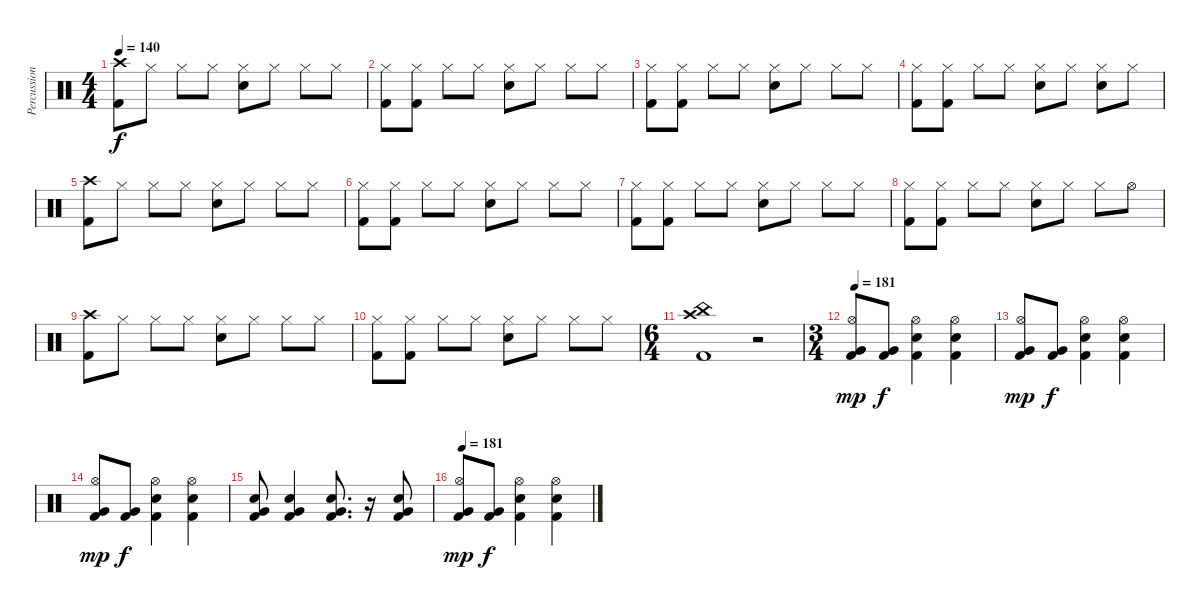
\track ("Percussion" "Percussion") {instrument percussion}
\staff {score}
\articulation defaults
\ts (4 4)
\tempo 140
\clef neutral
\ks c
("Kick (hit) 2" "Crash high (hit)").8{dy f} "Hi-Hat (closed)".8 "Hi-Hat (closed)".8 "Hi-Hat (closed)".8 ("Electric Snare (hit)" "Hi-Hat (closed)").8 "Hi-Hat (closed)".8 "Hi-Hat (closed)".8 "Hi-Hat (closed)".8 |
("Kick (hit) 2" "Hi-Hat (closed)").8 ("Hi-Hat (closed)" "Kick (hit) 2").8 "Hi-Hat (closed)".8 "Hi-Hat (closed)".8 ("Electric Snare (hit)" "Hi-Hat (closed)").8 "Hi-Hat (closed)".8 "Hi-Hat (closed)".8 "Hi-Hat (closed)".8 |
("Kick (hit) 2" "Hi-Hat (closed)").8 ("Hi-Hat (closed)" "Kick (hit) 2").8 "Hi-Hat (closed)".8 "Hi-Hat (closed)".8 ("Electric Snare (hit)" "Hi-Hat (closed)").8 "Hi-Hat (closed)".8 "Hi-Hat (closed)".8 "Hi-Hat (closed)".8 |
("Kick (hit) 2" "Hi-Hat (closed)").8 ("Hi-Hat (closed)" "Kick (hit) 2").8 "Hi-Hat (closed)".8 "Hi-Hat (closed)".8 ("Electric Snare (hit)" "Hi-Hat (closed)").8 "Hi-Hat (closed)".8 ("Hi-Hat (closed)" "Electric Snare (hit)").8 "Hi-Hat (closed)".8 |
("Kick (hit) 2" "Crash high (hit)").8 "Hi-Hat (closed)".8 "Hi-Hat (closed)".8 "Hi-Hat (closed)".8 ("Electric Snare (hit)" "Hi-Hat (closed)").8 "Hi-Hat (closed)".8 "Hi-Hat (closed)".8 "Hi-Hat (closed)".8 |
("Kick (hit) 2" "Hi-Hat (closed)").8 ("Hi-Hat (closed)" "Kick (hit) 2").8 "Hi-Hat (closed)".8 "Hi-Hat (closed)".8 ("Electric Snare (hit)" "Hi-Hat (closed)").8 "Hi-Hat (closed)".8 "Hi-Hat (closed)".8 "Hi-Hat (closed)".8 |
("Kick (hit) 2" "Hi-Hat (closed)").8 ("Hi-Hat (closed)" "Kick (hit) 2").8 "Hi-Hat (closed)".8 "Hi-Hat (closed)".8 ("Electric Snare (hit)" "Hi-Hat (closed)").8 "Hi-Hat (closed)".8 "Hi-Hat (closed)".8 "Hi-Hat (closed)".8 |
("Kick (hit) 2" "Hi-Hat (closed)").8 ("Hi-Hat (closed)" "Kick (hit) 2").8 "Hi-Hat (closed)".8 "Hi-Hat (closed)".8 ("Electric Snare (hit)" "Hi-Hat (closed)").8 "Hi-Hat (closed)".8 "Hi-Hat (closed)".8 "Hi-Hat (open)".8 |
("Kick (hit) 2" "Crash high (hit)").8 "Hi-Hat (closed)".8 "Hi-Hat (closed)".8 "Hi-Hat (closed)".8 ("Electric Snare (hit)" "Hi-Hat (closed)").8 "Hi-Hat (closed)".8 "Hi-Hat (closed)".8 "Hi-Hat (closed)".8 |
("Kick (hit) 2" "Hi-Hat (closed)").8 ("Hi-Hat (closed)" "Kick (hit) 2").8 "Hi-Hat (closed)".8 "Hi-Hat (closed)".8 ("Electric Snare (hit)" "Hi-Hat (closed)").8 "Hi-Hat (closed)".8 "Hi-Hat (closed)".8 "Hi-Hat (closed)".8 |
\ts (6 4)
("Crash high (hit)" "Kick (hit) 2" "China (hit)").1 r.2 |
\ts (3 4)
\tempo 181
("Kick (hit) 2" "Very Low Tom (hit)" "Hi-Hat (open)").8{dy mp} ("Kick (hit) 2" "Very Low Tom (hit)").8{dy f} ("Electric Snare (hit)" "Kick (hit) 2" "Hi-Hat (open)").4 ("Electric Snare (hit)" "Kick (hit) 2" "Hi-Hat (open)").4 |
("Kick (hit) 2" "Very Low Tom (hit)" "Hi-Hat (open)").8{dy mp} ("Kick (hit) 2" "Very Low Tom (hit)").8{dy f} ("Electric Snare (hit)" "Kick (hit) 2" "Hi-Hat (open)").4 ("Electric Snare (hit)" "Kick (hit) 2" "Hi-Hat (open)").4 |
("Kick (hit) 2" "Very Low Tom (hit)" "Hi-Hat (open)").8{dy mp} ("Kick (hit) 2" "Very Low Tom (hit)").8{dy f} ("Electric Snare (hit)" "Kick (hit) 2" "Hi-Hat (open)").4 ("Electric Snare (hit)" "Kick (hit) 2" "Hi-Hat (open)").4 |
("Electric Snare (hit)" "Kick (hit) 2" "Very Low Tom (hit)").8 ("Electric Snare (hit)" "Kick (hit) 2" "Very Low Tom (hit)").4 ("Electric Snare (hit)" "Kick (hit) 2" "Very Low Tom (hit)").8{d} r.16 ("Electric Snare (hit)" "Kick (hit) 2" "Very Low Tom (hit)").8 |
\tempo 181
("Kick (hit) 2" "Very Low Tom (hit)" "Hi-Hat (open)").8{dy mp} ("Kick (hit) 2" "Very Low Tom (hit)").8{dy f} ("Electric Snare (hit)" "Kick (hit) 2" "Hi-Hat (open)").4 ("Electric Snare (hit)" "Kick (hit) 2" "Hi-Hat (open)").4
